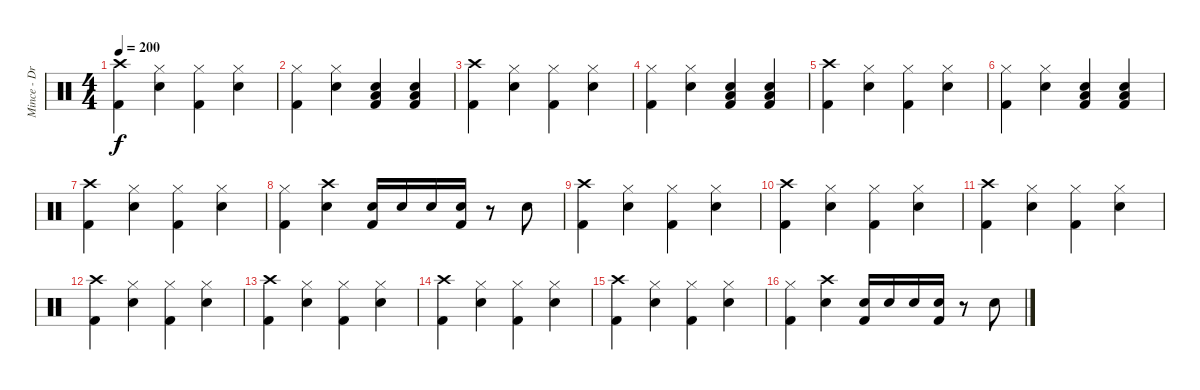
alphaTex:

\track ("Mince - Drums" "Mince - Dr") {instrument percussion}
\staff {score}
\articulation defaults
\ts (4 4)
\tempo 200
\clef neutral
\ks c
("Crash high (hit)" "Kick (hit) 2").4{dy f} ("Hi-Hat (closed)" "Electric Snare (hit)").4 ("Hi-Hat (closed)" "Kick (hit) 2").4 ("Hi-Hat (closed)" "Electric Snare (hit)").4 |
("Hi-Hat (closed)" "Kick (hit) 2").4 ("Hi-Hat (closed)" "Electric Snare (hit)").4 ("Electric Snare (hit)" "Low Tom (hit)" "Kick (hit) 2").4 ("Electric Snare (hit)" "Low Tom (hit)" "Kick (hit) 2").4 |
("Crash high (hit)" "Kick (hit) 2").4 ("Hi-Hat (closed)" "Electric Snare (hit)").4 ("Hi-Hat (closed)" "Kick (hit) 2").4 ("Hi-Hat (closed)" "Electric Snare (hit)").4 |
("Hi-Hat (closed)" "Kick (hit) 2").4 ("Hi-Hat (closed)" "Electric Snare (hit)").4 ("Electric Snare (hit)" "Low Tom (hit)" "Kick (hit) 2").4 ("Electric Snare (hit)" "Low Tom (hit)" "Kick (hit) 2").4 |
("Crash high (hit)" "Kick (hit) 2").4 ("Hi-Hat (closed)" "Electric Snare (hit)").4 ("Hi-Hat (closed)" "Kick (hit) 2").4 ("Hi-Hat (closed)" "Electric Snare (hit)").4 |
("Hi-Hat (closed)" "Kick (hit) 2").4 ("Hi-Hat (closed)" "Electric Snare (hit)").4 ("Electric Snare (hit)" "Low Tom (hit)" "Kick (hit) 2").4 ("Electric Snare (hit)" "Low Tom (hit)" "Kick (hit) 2").4 |
("Crash high (hit)" "Kick (hit) 2").4 ("Hi-Hat (closed)" "Electric Snare (hit)").4 ("Hi-Hat (closed)" "Kick (hit) 2").4 ("Hi-Hat (closed)" "Electric Snare (hit)").4 |
("Hi-Hat (closed)" "Kick (hit) 2").4 ("Crash high (hit)" "Electric Snare (hit)").4 ("Electric Snare (hit)" "Kick (hit) 2").16 "Electric Snare (hit)".16 "Electric Snare (hit)".16 ("Electric Snare (hit)" "Kick (hit) 2").16 r.8 "Electric Snare (hit)".8 |
("Crash high (hit)" "Kick (hit) 2").4 ("Hi-Hat (closed)" "Electric Snare (hit)").4 ("Hi-Hat (closed)" "Kick (hit) 2").4 ("Hi-Hat (closed)" "Electric Snare (hit)").4 |
("Crash high (hit)" "Kick (hit) 2").4 ("Hi-Hat (closed)" "Electric Snare (hit)").4 ("Hi-Hat (closed)" "Kick (hit) 2").4 ("Hi-Hat (closed)" "Electric Snare (hit)").4 |
("Crash high (hit)" "Kick (hit) 2").4 ("Hi-Hat (closed)" "Electric Snare (hit)").4 ("Hi-Hat (closed)" "Kick (hit) 2").4 ("Hi-Hat (closed)" "Electric Snare (hit)").4 |
("Crash high (hit)" "Kick (hit) 2").4 ("Hi-Hat (closed)" "Electric Snare (hit)").4 ("Hi-Hat (closed)" "Kick (hit) 2").4 ("Hi-Hat (closed)" "Electric Snare (hit)").4 |
("Crash high (hit)" "Kick (hit) 2").4 ("Hi-Hat (closed)" "Electric Snare (hit)").4 ("Hi-Hat (closed)" "Kick (hit) 2").4 ("Hi-Hat (closed)" "Electric Snare (hit)").4 |
("Crash high (hit)" "Kick (hit) 2").4 ("Hi-Hat (closed)" "Electric Snare (hit)").4 ("Hi-Hat (closed)" "Kick (hit) 2").4 ("Hi-Hat (closed)" "Electric Snare (hit)").4 |
("Crash high (hit)" "Kick (hit) 2").4 ("Hi-Hat (closed)" "Electric Snare (hit)").4 ("Hi-Hat (closed)" "Kick (hit) 2").4 ("Hi-Hat (closed)" "Electric Snare (hit)").4 |
("Hi-Hat (closed)" "Kick (hit) 2").4 ("Crash high (hit)" "Electric Snare (hit)").4 ("Electric Snare (hit)" "Kick (hit) 2").16 "Electric Snare (hit)".16 "Electric Snare (hit)".16 ("Electric Snare (hit)" "Kick (hit) 2").16 r.8 "Electric Snare (hit)".8
